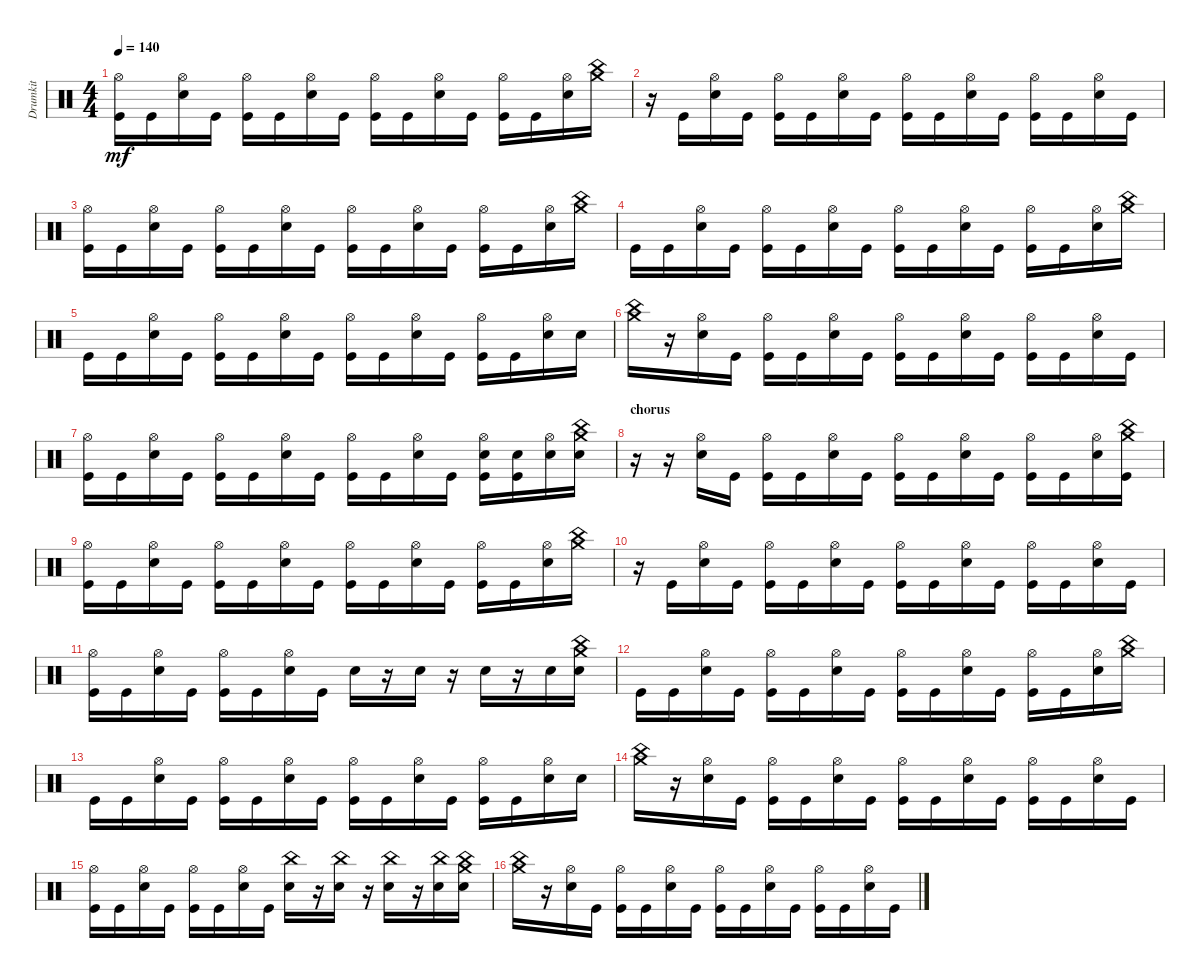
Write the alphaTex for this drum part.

\track ("Drumkit" "Drumkit") {instrument percussion}
\staff {score}
\articulation defaults
\ts (4 4)
\tempo 140
\clef neutral
\ks c
("Kick (hit)" "Hi-Hat (open)").16{dy mf} "Kick (hit)".16 ("Snare (hit) 2" "Hi-Hat (open)").16 "Kick (hit)".16 ("Kick (hit)" "Hi-Hat (open)").16 "Kick (hit)".16 ("Snare (hit) 2" "Hi-Hat (open)").16 "Kick (hit)".16 ("Kick (hit)" "Hi-Hat (open)").16 "Kick (hit)".16 ("Snare (hit) 2" "Hi-Hat (open)").16 "Kick (hit)".16 ("Kick (hit)" "Hi-Hat (open)").16 "Kick (hit)".16 ("Snare (hit) 2" "Hi-Hat (open)").16 ("China (hit)" "Crash medium (hit)").16 |
r.16 "Kick (hit)".16 ("Snare (hit) 2" "Hi-Hat (open)").16 "Kick (hit)".16 ("Kick (hit)" "Hi-Hat (open)").16 "Kick (hit)".16 ("Snare (hit) 2" "Hi-Hat (open)").16 "Kick (hit)".16 ("Kick (hit)" "Hi-Hat (open)").16 "Kick (hit)".16 ("Snare (hit) 2" "Hi-Hat (open)").16 "Kick (hit)".16 ("Kick (hit)" "Hi-Hat (open)").16 "Kick (hit)".16 ("Snare (hit) 2" "Hi-Hat (open)").16 "Kick (hit)".16 |
("Kick (hit)" "Hi-Hat (open)").16 "Kick (hit)".16 ("Snare (hit) 2" "Hi-Hat (open)").16 "Kick (hit)".16 ("Kick (hit)" "Hi-Hat (open)").16 "Kick (hit)".16 ("Snare (hit) 2" "Hi-Hat (open)").16 "Kick (hit)".16 ("Kick (hit)" "Hi-Hat (open)").16 "Kick (hit)".16 ("Snare (hit) 2" "Hi-Hat (open)").16 "Kick (hit)".16 ("Kick (hit)" "Hi-Hat (open)").16 "Kick (hit)".16 ("Snare (hit) 2" "Hi-Hat (open)").16 ("China (hit)" "Crash medium (hit)").16 |
"Kick (hit)".16 "Kick (hit)".16 ("Snare (hit) 2" "Hi-Hat (open)").16 "Kick (hit)".16 ("Kick (hit)" "Hi-Hat (open)").16 "Kick (hit)".16 ("Snare (hit) 2" "Hi-Hat (open)").16 "Kick (hit)".16 ("Kick (hit)" "Hi-Hat (open)").16 "Kick (hit)".16 ("Snare (hit) 2" "Hi-Hat (open)").16 "Kick (hit)".16 ("Kick (hit)" "Hi-Hat (open)").16 "Kick (hit)".16 ("Snare (hit) 2" "Hi-Hat (open)").16 ("China (hit)" "Crash medium (hit)").16 |
"Kick (hit)".16 "Kick (hit)".16 ("Snare (hit) 2" "Hi-Hat (open)").16 "Kick (hit)".16 ("Kick (hit)" "Hi-Hat (open)").16 "Kick (hit)".16 ("Snare (hit) 2" "Hi-Hat (open)").16 "Kick (hit)".16 ("Kick (hit)" "Hi-Hat (open)").16 "Kick (hit)".16 ("Snare (hit) 2" "Hi-Hat (open)").16 "Kick (hit)".16 ("Kick (hit)" "Hi-Hat (open)").16 "Kick (hit)".16 ("Snare (hit) 2" "Hi-Hat (open)").16 "Snare (hit) 2".16 |
("China (hit)" "Crash medium (hit)").16 r.16 ("Snare (hit) 2" "Hi-Hat (open)").16 "Kick (hit)".16 ("Kick (hit)" "Hi-Hat (open)").16 "Kick (hit)".16 ("Snare (hit) 2" "Hi-Hat (open)").16 "Kick (hit)".16 ("Kick (hit)" "Hi-Hat (open)").16 "Kick (hit)".16 ("Snare (hit) 2" "Hi-Hat (open)").16 "Kick (hit)".16 ("Kick (hit)" "Hi-Hat (open)").16 "Kick (hit)".16 ("Snare (hit) 2" "Hi-Hat (open)").16 "Kick (hit)".16 |
("Kick (hit)" "Hi-Hat (open)").16 "Kick (hit)".16 ("Snare (hit) 2" "Hi-Hat (open)").16 "Kick (hit)".16 ("Kick (hit)" "Hi-Hat (open)").16 "Kick (hit)".16 ("Snare (hit) 2" "Hi-Hat (open)").16 "Kick (hit)".16 ("Kick (hit)" "Hi-Hat (open)").16 "Kick (hit)".16 ("Snare (hit) 2" "Hi-Hat (open)").16 "Kick (hit)".16 ("Kick (hit)" "Hi-Hat (open)" "Snare (hit) 2").16 ("Kick (hit)" "Snare (hit) 2").16 ("Hi-Hat (open)" "Snare (hit) 2").16 ("China (hit)" "Crash medium (hit)" "Snare (hit) 2").16 |
\section ("" "chorus")
r.16 r.16 ("Snare (hit) 2" "Hi-Hat (open)").16 "Kick (hit)".16 ("Kick (hit)" "Hi-Hat (open)").16 "Kick (hit)".16 ("Snare (hit) 2" "Hi-Hat (open)").16 "Kick (hit)".16 ("Kick (hit)" "Hi-Hat (open)").16 "Kick (hit)".16 ("Snare (hit) 2" "Hi-Hat (open)").16 "Kick (hit)".16 ("Kick (hit)" "Hi-Hat (open)").16 "Kick (hit)".16 ("Snare (hit) 2" "Hi-Hat (open)").16 ("Kick (hit)" "China (hit)" "Crash medium (hit)").16 |
("Kick (hit)" "Hi-Hat (open)").16 "Kick (hit)".16 ("Snare (hit) 2" "Hi-Hat (open)").16 "Kick (hit)".16 ("Kick (hit)" "Hi-Hat (open)").16 "Kick (hit)".16 ("Snare (hit) 2" "Hi-Hat (open)").16 "Kick (hit)".16 ("Kick (hit)" "Hi-Hat (open)").16 "Kick (hit)".16 ("Snare (hit) 2" "Hi-Hat (open)").16 "Kick (hit)".16 ("Kick (hit)" "Hi-Hat (open)").16 "Kick (hit)".16 ("Snare (hit) 2" "Hi-Hat (open)").16 ("China (hit)" "Crash medium (hit)").16 |
r.16 "Kick (hit)".16 ("Snare (hit) 2" "Hi-Hat (open)").16 "Kick (hit)".16 ("Kick (hit)" "Hi-Hat (open)").16 "Kick (hit)".16 ("Snare (hit) 2" "Hi-Hat (open)").16 "Kick (hit)".16 ("Kick (hit)" "Hi-Hat (open)").16 "Kick (hit)".16 ("Snare (hit) 2" "Hi-Hat (open)").16 "Kick (hit)".16 ("Kick (hit)" "Hi-Hat (open)").16 "Kick (hit)".16 ("Snare (hit) 2" "Hi-Hat (open)").16 "Kick (hit)".16 |
("Kick (hit)" "Hi-Hat (open)").16 "Kick (hit)".16 ("Snare (hit) 2" "Hi-Hat (open)").16 "Kick (hit)".16 ("Kick (hit)" "Hi-Hat (open)").16 "Kick (hit)".16 ("Snare (hit) 2" "Hi-Hat (open)").16 "Kick (hit)".16 "Snare (hit) 2".16 r.16 "Snare (hit) 2".16 r.16 "Snare (hit) 2".16 r.16 "Snare (hit) 2".16 ("China (hit)" "Crash medium (hit)" "Snare (hit) 2").16 |
"Kick (hit)".16 "Kick (hit)".16 ("Snare (hit) 2" "Hi-Hat (open)").16 "Kick (hit)".16 ("Kick (hit)" "Hi-Hat (open)").16 "Kick (hit)".16 ("Snare (hit) 2" "Hi-Hat (open)").16 "Kick (hit)".16 ("Kick (hit)" "Hi-Hat (open)").16 "Kick (hit)".16 ("Snare (hit) 2" "Hi-Hat (open)").16 "Kick (hit)".16 ("Kick (hit)" "Hi-Hat (open)").16 "Kick (hit)".16 ("Snare (hit) 2" "Hi-Hat (open)").16 ("China (hit)" "Crash medium (hit)").16 |
"Kick (hit)".16 "Kick (hit)".16 ("Snare (hit) 2" "Hi-Hat (open)").16 "Kick (hit)".16 ("Kick (hit)" "Hi-Hat (open)").16 "Kick (hit)".16 ("Snare (hit) 2" "Hi-Hat (open)").16 "Kick (hit)".16 ("Kick (hit)" "Hi-Hat (open)").16 "Kick (hit)".16 ("Snare (hit) 2" "Hi-Hat (open)").16 "Kick (hit)".16 ("Kick (hit)" "Hi-Hat (open)").16 "Kick (hit)".16 ("Snare (hit) 2" "Hi-Hat (open)").16 "Snare (hit) 2".16 |
("China (hit)" "Crash medium (hit)").16 r.16 ("Snare (hit) 2" "Hi-Hat (open)").16 "Kick (hit)".16 ("Kick (hit)" "Hi-Hat (open)").16 "Kick (hit)".16 ("Snare (hit) 2" "Hi-Hat (open)").16 "Kick (hit)".16 ("Kick (hit)" "Hi-Hat (open)").16 "Kick (hit)".16 ("Snare (hit) 2" "Hi-Hat (open)").16 "Kick (hit)".16 ("Kick (hit)" "Hi-Hat (open)").16 "Kick (hit)".16 ("Snare (hit) 2" "Hi-Hat (open)").16 "Kick (hit)".16 |
("Kick (hit)" "Hi-Hat (open)").16 "Kick (hit)".16 ("Snare (hit) 2" "Hi-Hat (open)").16 "Kick (hit)".16 ("Kick (hit)" "Hi-Hat (open)").16 "Kick (hit)".16 ("Snare (hit) 2" "Hi-Hat (open)").16 "Kick (hit)".16 ("Snare (hit) 2" "China (hit)").16 r.16 ("Snare (hit) 2" "China (hit)").16 r.16 ("Snare (hit) 2" "China (hit)").16 r.16 ("Snare (hit) 2" "China (hit)").16 ("China (hit)" "Crash medium (hit)" "Snare (hit) 2").16 |
("China (hit)" "Crash medium (hit)").16 r.16 ("Snare (hit) 2" "Hi-Hat (open)").16 "Kick (hit)".16 ("Kick (hit)" "Hi-Hat (open)").16 "Kick (hit)".16 ("Snare (hit) 2" "Hi-Hat (open)").16 "Kick (hit)".16 ("Kick (hit)" "Hi-Hat (open)").16 "Kick (hit)".16 ("Snare (hit) 2" "Hi-Hat (open)").16 "Kick (hit)".16 ("Kick (hit)" "Hi-Hat (open)").16 "Kick (hit)".16 ("Snare (hit) 2" "Hi-Hat (open)").16 "Kick (hit)".16
